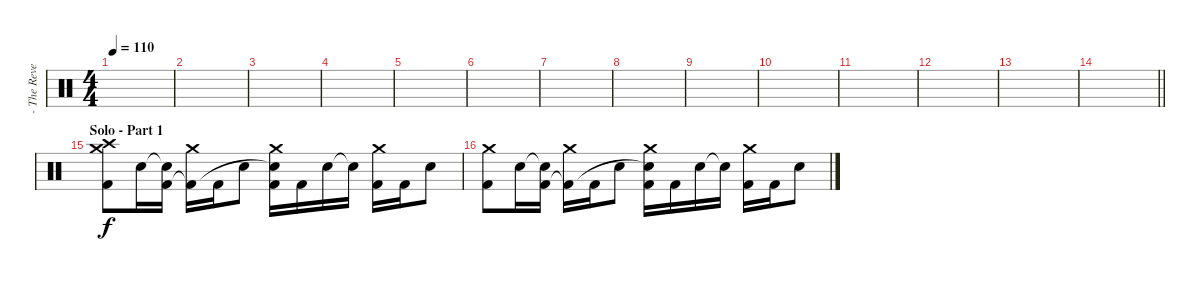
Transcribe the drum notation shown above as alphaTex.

\track ("- The Reverend - Drums" "- The Reve") {instrument percussion}
\staff {score}
\articulation defaults
\ts (4 4)
\tempo 110
\clef neutral
\ks c
|
|
|
|
|
|
|
|
|
|
|
|
|
\barLineRight lightlight
|
\section ("" "Solo - Part 1")
("Crash medium (hit)" "Crash high (hit)" "Kick (hit) 2").8 "Snare (hit) 2".16 ("Snare (hit)"{t} "Kick (hit) 2").16 ("Crash medium (hit)" "Kick (hit) 2"{t}).16 "Kick (hit) 2".16 "Snare (hit) 2".8 ("Crash medium (hit)" "Snare (hit) 2"{t} "Kick (hit) 2").16 "Kick (hit) 2".16 "Snare (hit) 2".16 "Snare (hit) 2"{t}.16 ("Crash medium (hit)" "Kick (hit) 2").16 "Kick (hit) 2".16 "Snare (hit) 2".8 |
("Crash medium (hit)" "Kick (hit) 2").8 "Snare (hit) 2".16 ("Snare (hit)"{t} "Kick (hit) 2").16 ("Crash medium (hit)" "Kick (hit) 2"{t}).16 "Kick (hit) 2".16 "Snare (hit) 2".8 ("Crash medium (hit)" "Snare (hit) 2"{t} "Kick (hit) 2").16 "Kick (hit) 2".16 "Snare (hit) 2".16 "Snare (hit) 2"{t}.16 ("Crash medium (hit)" "Kick (hit) 2").16 "Kick (hit) 2".16 "Snare (hit) 2".8
